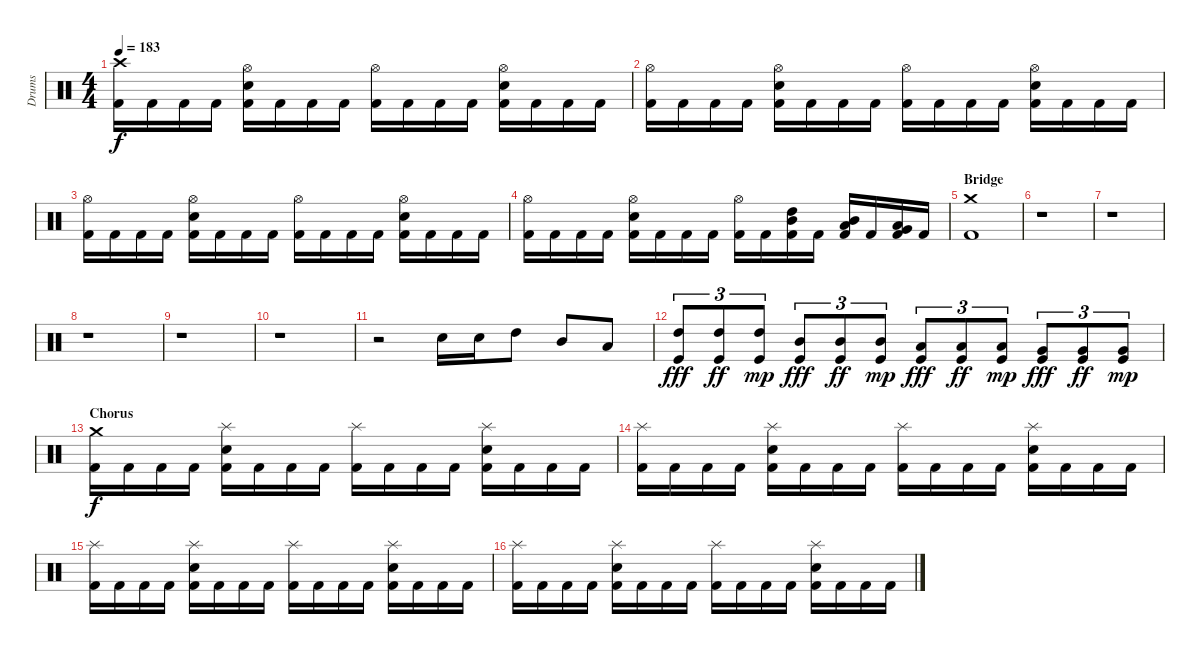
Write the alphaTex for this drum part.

\track ("Drums" "Drums") {instrument percussion}
\staff {score}
\articulation defaults
\ts (4 4)
\tempo 183
\clef neutral
\ks c
("Kick (hit) 2" "Crash high (hit)").16{dy f} "Kick (hit) 2".16 "Kick (hit) 2".16 "Kick (hit) 2".16 ("Kick (hit) 2" "Electric Snare (hit)" "Hi-Hat (open)").16 "Kick (hit) 2".16 "Kick (hit) 2".16 "Kick (hit) 2".16 ("Kick (hit) 2" "Hi-Hat (open)").16 "Kick (hit) 2".16 "Kick (hit) 2".16 "Kick (hit) 2".16 ("Kick (hit) 2" "Electric Snare (hit)" "Hi-Hat (open)").16 "Kick (hit) 2".16 "Kick (hit) 2".16 "Kick (hit) 2".16 |
("Kick (hit) 2" "Hi-Hat (open)").16 "Kick (hit) 2".16 "Kick (hit) 2".16 "Kick (hit) 2".16 ("Kick (hit) 2" "Electric Snare (hit)" "Hi-Hat (open)").16 "Kick (hit) 2".16 "Kick (hit) 2".16 "Kick (hit) 2".16 ("Kick (hit) 2" "Hi-Hat (open)").16 "Kick (hit) 2".16 "Kick (hit) 2".16 "Kick (hit) 2".16 ("Kick (hit) 2" "Electric Snare (hit)" "Hi-Hat (open)").16 "Kick (hit) 2".16 "Kick (hit) 2".16 "Kick (hit) 2".16 |
("Kick (hit) 2" "Hi-Hat (open)").16 "Kick (hit) 2".16 "Kick (hit) 2".16 "Kick (hit) 2".16 ("Kick (hit) 2" "Electric Snare (hit)" "Hi-Hat (open)").16 "Kick (hit) 2".16 "Kick (hit) 2".16 "Kick (hit) 2".16 ("Kick (hit) 2" "Hi-Hat (open)").16 "Kick (hit) 2".16 "Kick (hit) 2".16 "Kick (hit) 2".16 ("Kick (hit) 2" "Electric Snare (hit)" "Hi-Hat (open)").16 "Kick (hit) 2".16 "Kick (hit) 2".16 "Kick (hit) 2".16 |
("Kick (hit) 2" "Hi-Hat (open)").16 "Kick (hit) 2".16 "Kick (hit) 2".16 "Kick (hit) 2".16 ("Kick (hit) 2" "Electric Snare (hit)" "Hi-Hat (open)").16 "Kick (hit) 2".16 "Kick (hit) 2".16 "Kick (hit) 2".16 ("Kick (hit) 2" "Hi-Hat (open)").16 "Kick (hit) 2".16 ("Kick (hit) 2" "Mid Tom (hit)" "High Tom (hit)").16 "Kick (hit) 2".16 ("Kick (hit) 2" "Low Tom (hit)" "Mid Tom (hit)").16 "Kick (hit) 2".16 ("Kick (hit) 2" "Very Low Tom (hit)" "Low Tom (hit)").16 "Kick (hit) 2".16 |
\section ("" "Bridge")
("Kick (hit) 2" "Crash medium (hit)").1 |
r.1 |
r.1 |
r.1 |
r.1 |
r.1 |
r.2 "Electric Snare (hit)".16 "Electric Snare (hit)".16 "High Tom (hit)".8 "Mid Tom (hit)".8 "Low Tom (hit)".8 |
("Kick (hit)" "High Tom (hit)").8{tu (3 2) dy fff} ("Kick (hit)" "High Tom (hit)").8{tu (3 2) dy ff} ("Kick (hit)" "High Tom (hit)").8{tu (3 2) dy mp} ("Kick (hit)" "Mid Tom (hit)").8{tu (3 2) dy fff} ("Kick (hit)" "Mid Tom (hit)").8{tu (3 2) dy ff} ("Kick (hit)" "Mid Tom (hit)").8{tu (3 2) dy mp} ("Kick (hit)" "Low Tom (hit)").8{tu (3 2) dy fff} ("Kick (hit)" "Low Tom (hit)").8{tu (3 2) dy ff} ("Kick (hit)" "Low Tom (hit)").8{tu (3 2) dy mp} ("Kick (hit)" "Very Low Tom (hit)").8{tu (3 2) dy fff} ("Kick (hit)" "Very Low Tom (hit)").8{tu (3 2) dy ff} ("Kick (hit)" "Very Low Tom (hit)").8{tu (3 2) dy mp} |
\section ("" "Chorus")
("Kick (hit) 2" "Crash medium (hit)").16{dy f} "Kick (hit) 2".16 "Kick (hit) 2".16 "Kick (hit) 2".16 ("Kick (hit) 2" "Electric Snare (hit)" "Splash (hit)").16 "Kick (hit) 2".16 "Kick (hit) 2".16 "Kick (hit) 2".16 ("Kick (hit) 2" "Splash (hit)").16 "Kick (hit) 2".16 "Kick (hit) 2".16 "Kick (hit) 2".16 ("Kick (hit) 2" "Electric Snare (hit)" "Splash (hit)").16 "Kick (hit) 2".16 "Kick (hit) 2".16 "Kick (hit) 2".16 |
("Kick (hit) 2" "Splash (hit)").16 "Kick (hit) 2".16 "Kick (hit) 2".16 "Kick (hit) 2".16 ("Kick (hit) 2" "Electric Snare (hit)" "Splash (hit)").16 "Kick (hit) 2".16 "Kick (hit) 2".16 "Kick (hit) 2".16 ("Kick (hit) 2" "Splash (hit)").16 "Kick (hit) 2".16 "Kick (hit) 2".16 "Kick (hit) 2".16 ("Kick (hit) 2" "Electric Snare (hit)" "Splash (hit)").16 "Kick (hit) 2".16 "Kick (hit) 2".16 "Kick (hit) 2".16 |
("Kick (hit) 2" "Splash (hit)").16 "Kick (hit) 2".16 "Kick (hit) 2".16 "Kick (hit) 2".16 ("Kick (hit) 2" "Electric Snare (hit)" "Splash (hit)").16 "Kick (hit) 2".16 "Kick (hit) 2".16 "Kick (hit) 2".16 ("Kick (hit) 2" "Splash (hit)").16 "Kick (hit) 2".16 "Kick (hit) 2".16 "Kick (hit) 2".16 ("Kick (hit) 2" "Electric Snare (hit)" "Splash (hit)").16 "Kick (hit) 2".16 "Kick (hit) 2".16 "Kick (hit) 2".16 |
("Kick (hit) 2" "Splash (hit)").16 "Kick (hit) 2".16 "Kick (hit) 2".16 "Kick (hit) 2".16 ("Kick (hit) 2" "Electric Snare (hit)" "Splash (hit)").16 "Kick (hit) 2".16 "Kick (hit) 2".16 "Kick (hit) 2".16 ("Kick (hit) 2" "Splash (hit)").16 "Kick (hit) 2".16 "Kick (hit) 2".16 "Kick (hit) 2".16 ("Kick (hit) 2" "Electric Snare (hit)" "Splash (hit)").16 "Kick (hit) 2".16 "Kick (hit) 2".16 "Kick (hit) 2".16
